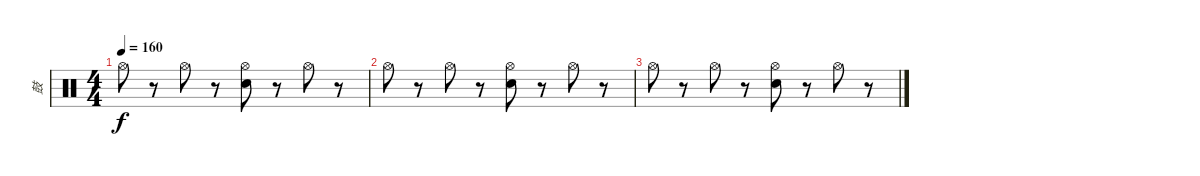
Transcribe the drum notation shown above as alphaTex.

\track ("鼓" "鼓") {instrument percussion}
\staff {score}
\articulation defaults
\ts (4 4)
\tempo 160
\clef neutral
\ks c "Hi-Hat (open)".8{dy f}
r.8 "Hi-Hat (open)".8 r.8 ("Electric Snare (hit)" "Hi-Hat (open)").8 r.8 "Hi-Hat (open)".8 r.8 |
"Hi-Hat (open)".8 r.8 "Hi-Hat (open)".8 r.8 ("Electric Snare (hit)" "Hi-Hat (open)").8 r.8 "Hi-Hat (open)".8 r.8 |
"Hi-Hat (open)".8 r.8 "Hi-Hat (open)".8 r.8 ("Electric Snare (hit)" "Hi-Hat (open)").8 r.8 "Hi-Hat (open)".8 r.8
